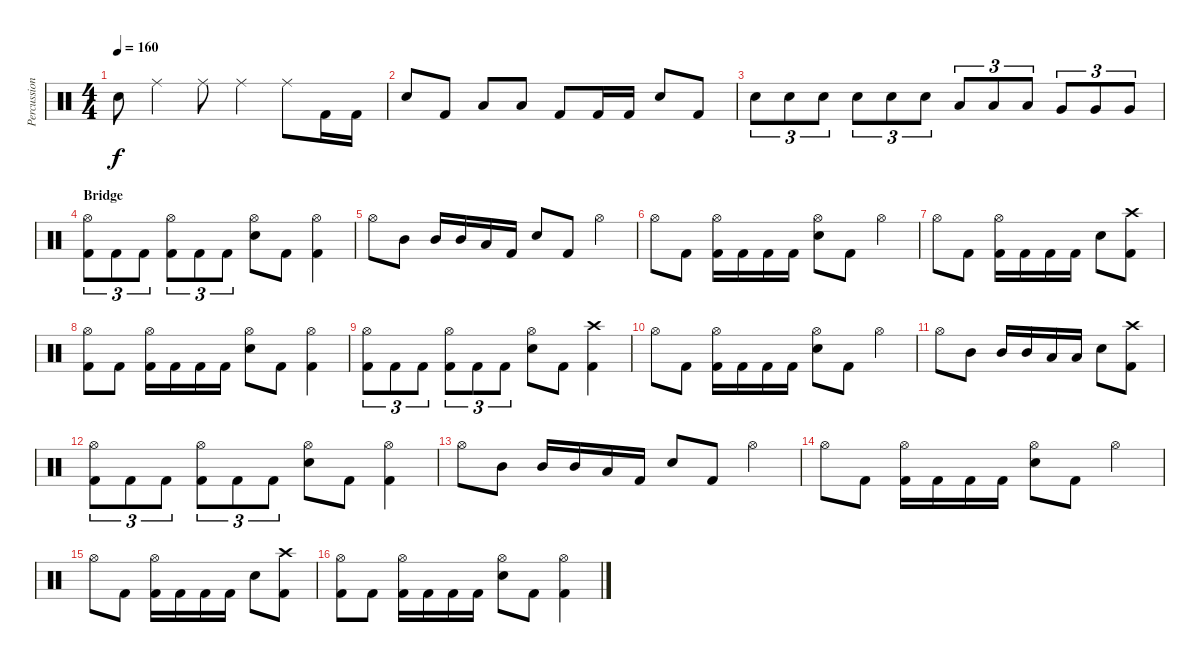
\track ("Percussion" "Percussion") {instrument percussion}
\staff {score}
\articulation defaults
\ts (4 4)
\tempo 160
\clef neutral
\ks c "Snare (hit)"{t}.8{dy f} "Ride (middle)".4 "Ride (middle)".8 "Ride (middle)".4 "Ride (middle)".8 "Kick (hit) 2".16 "Kick (hit) 2".16
|
"Electric Snare (hit)".8 "Kick (hit) 2".8 "Low Tom (hit)".8 "Low Tom (hit)".8 "Kick (hit) 2".8 "Kick (hit) 2".16 "Kick (hit) 2".16 "Electric Snare (hit)".8 "Kick (hit) 2".8 |
"Electric Snare (hit)".8{tu (3 2)} "Electric Snare (hit)".8{tu (3 2)} "Electric Snare (hit)".8{tu (3 2)} "Electric Snare (hit)".8{tu (3 2)} "Electric Snare (hit)".8{tu (3 2)} "Electric Snare (hit)".8{tu (3 2)} "Low Tom (hit)".8{tu (3 2)} "Low Tom (hit)".8{tu (3 2)} "Low Tom (hit)".8{tu (3 2)} "Very Low Tom (hit)".8{tu (3 2)} "Very Low Tom (hit)".8{tu (3 2)} "Very Low Tom (hit)".8{tu (3 2)} |
\section ("" "Bridge")
("Hi-Hat (open)" "Kick (hit) 2").8{tu (3 2)} "Kick (hit) 2".8{tu (3 2)} "Kick (hit) 2".8{tu (3 2)} ("Hi-Hat (open)" "Kick (hit) 2").8{tu (3 2)} "Kick (hit) 2".8{tu (3 2)} "Kick (hit) 2".8{tu (3 2)} ("Hi-Hat (open)" "Electric Snare (hit)").8 "Kick (hit) 2".8 ("Hi-Hat (open)" "Kick (hit) 2").4 |
"Hi-Hat (open)".8 "Mid Tom (hit)".8 "Mid Tom (hit)".16 "Mid Tom (hit)".16 "Low Tom (hit)".16 "Kick (hit) 2".16 "Electric Snare (hit)".8 "Kick (hit) 2".8 "Hi-Hat (open)".4 |
"Hi-Hat (open)".8 "Kick (hit) 2".8 ("Hi-Hat (open)" "Kick (hit) 2").16 "Kick (hit) 2".16 "Kick (hit) 2".16 "Kick (hit) 2".16 ("Hi-Hat (open)" "Electric Snare (hit)").8 "Kick (hit) 2".8 "Hi-Hat (open)".4 |
"Hi-Hat (open)".8 "Kick (hit) 2".8 ("Hi-Hat (open)" "Kick (hit) 2").16 "Kick (hit) 2".16 "Kick (hit) 2".16 "Kick (hit) 2".16 "Electric Snare (hit)".8 ("Crash high (hit)" "Kick (hit) 2").8 |
("Hi-Hat (open)" "Kick (hit) 2").8 "Kick (hit) 2".8 ("Hi-Hat (open)" "Kick (hit) 2").16 "Kick (hit) 2".16 "Kick (hit) 2".16 "Kick (hit) 2".16 ("Hi-Hat (open)" "Electric Snare (hit)").8 "Kick (hit) 2".8 ("Hi-Hat (open)" "Kick (hit) 2").4 |
("Hi-Hat (open)" "Kick (hit) 2").8{tu (3 2)} "Kick (hit) 2".8{tu (3 2)} "Kick (hit) 2".8{tu (3 2)} ("Hi-Hat (open)" "Kick (hit) 2").8{tu (3 2)} "Kick (hit) 2".8{tu (3 2)} "Kick (hit) 2".8{tu (3 2)} ("Hi-Hat (open)" "Electric Snare (hit)").8 "Kick (hit) 2".8 ("Crash high (hit)" "Kick (hit) 2").4 |
"Hi-Hat (open)".8 "Kick (hit) 2".8 ("Hi-Hat (open)" "Kick (hit) 2").16 "Kick (hit) 2".16 "Kick (hit) 2".16 "Kick (hit) 2".16 ("Hi-Hat (open)" "Electric Snare (hit)").8 "Kick (hit) 2".8 "Hi-Hat (open)".4 |
"Hi-Hat (open)".8 "Mid Tom (hit)".8 "Mid Tom (hit)".16 "Mid Tom (hit)".16 "Low Tom (hit)".16 "Low Tom (hit)".16 "Electric Snare (hit)".8 ("Crash high (hit)" "Kick (hit) 2").8 |
("Hi-Hat (open)" "Kick (hit) 2").8{tu (3 2)} "Kick (hit) 2".8{tu (3 2)} "Kick (hit) 2".8{tu (3 2)} ("Hi-Hat (open)" "Kick (hit) 2").8{tu (3 2)} "Kick (hit) 2".8{tu (3 2)} "Kick (hit) 2".8{tu (3 2)} ("Hi-Hat (open)" "Electric Snare (hit)").8 "Kick (hit) 2".8 ("Hi-Hat (open)" "Kick (hit) 2").4 |
"Hi-Hat (open)".8 "Mid Tom (hit)".8 "Mid Tom (hit)".16 "Mid Tom (hit)".16 "Low Tom (hit)".16 "Kick (hit) 2".16 "Electric Snare (hit)".8 "Kick (hit) 2".8 "Hi-Hat (open)".4 |
"Hi-Hat (open)".8 "Kick (hit) 2".8 ("Hi-Hat (open)" "Kick (hit) 2").16 "Kick (hit) 2".16 "Kick (hit) 2".16 "Kick (hit) 2".16 ("Hi-Hat (open)" "Electric Snare (hit)").8 "Kick (hit) 2".8 "Hi-Hat (open)".4 |
"Hi-Hat (open)".8 "Kick (hit) 2".8 ("Hi-Hat (open)" "Kick (hit) 2").16 "Kick (hit) 2".16 "Kick (hit) 2".16 "Kick (hit) 2".16 "Electric Snare (hit)".8 ("Crash high (hit)" "Kick (hit) 2").8 |
("Hi-Hat (open)" "Kick (hit) 2").8 "Kick (hit) 2".8 ("Hi-Hat (open)" "Kick (hit) 2").16 "Kick (hit) 2".16 "Kick (hit) 2".16 "Kick (hit) 2".16 ("Hi-Hat (open)" "Electric Snare (hit)").8 "Kick (hit) 2".8 ("Hi-Hat (open)" "Kick (hit) 2").4
